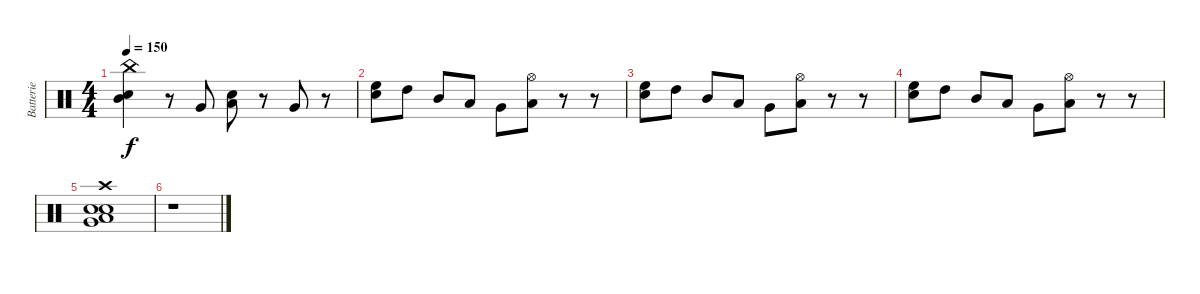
\track ("Batterie" "Batterie") {instrument percussion}
\staff {score}
\articulation defaults
\ts (4 4)
\tempo 150
\clef neutral
\ks c
("Mid Tom (hit)" "Electric Snare (hit)" "China (hit)").4{dy f} r.8 "Very Low Tom (hit)".8 ("Low Tom (hit)" "Electric Snare (hit)").8 r.8 "Very Low Tom (hit)".8 r.8 |
("High Floor Tom (hit)" "Electric Snare (hit)").8 "High Tom (hit)".8 "Mid Tom (hit)".8 "Low Tom (hit)".8 "Very Low Tom (hit)".8 ("Low Floor Tom (hit)" "Hi-Hat (open)").8 r.8 r.8 |
("High Floor Tom (hit)" "Electric Snare (hit)").8 "High Tom (hit)".8 "Mid Tom (hit)".8 "Low Tom (hit)".8 "Very Low Tom (hit)".8 ("Low Floor Tom (hit)" "Hi-Hat (open)").8 r.8 r.8 |
("High Floor Tom (hit)" "Electric Snare (hit)").8 "High Tom (hit)".8 "Mid Tom (hit)".8 "Low Tom (hit)".8 "Very Low Tom (hit)".8 ("Low Floor Tom (hit)" "Hi-Hat (open)").8 r.8 r.8 |
("Very Low Tom (hit)" "Low Floor Tom (hit)" "Electric Snare (hit)" "Snare (hit) 2" "Crash high (hit)").1 |
r.1
